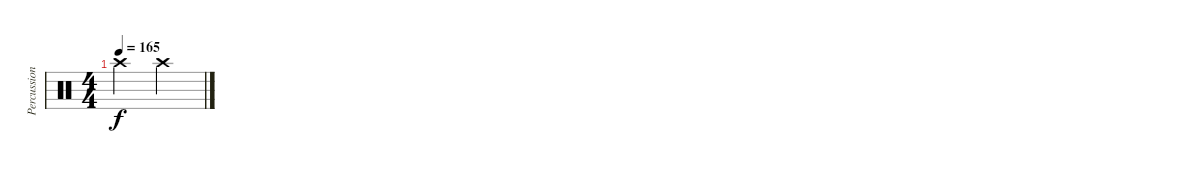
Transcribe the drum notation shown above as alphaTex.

\track ("Percussions" "Percussion") {instrument percussion}
\staff {score}
\articulation defaults
\ts (4 4)
\tempo 165
\clef neutral
\ks c "Crash high (hit)".2{dy f} "Crash high (hit)".2
